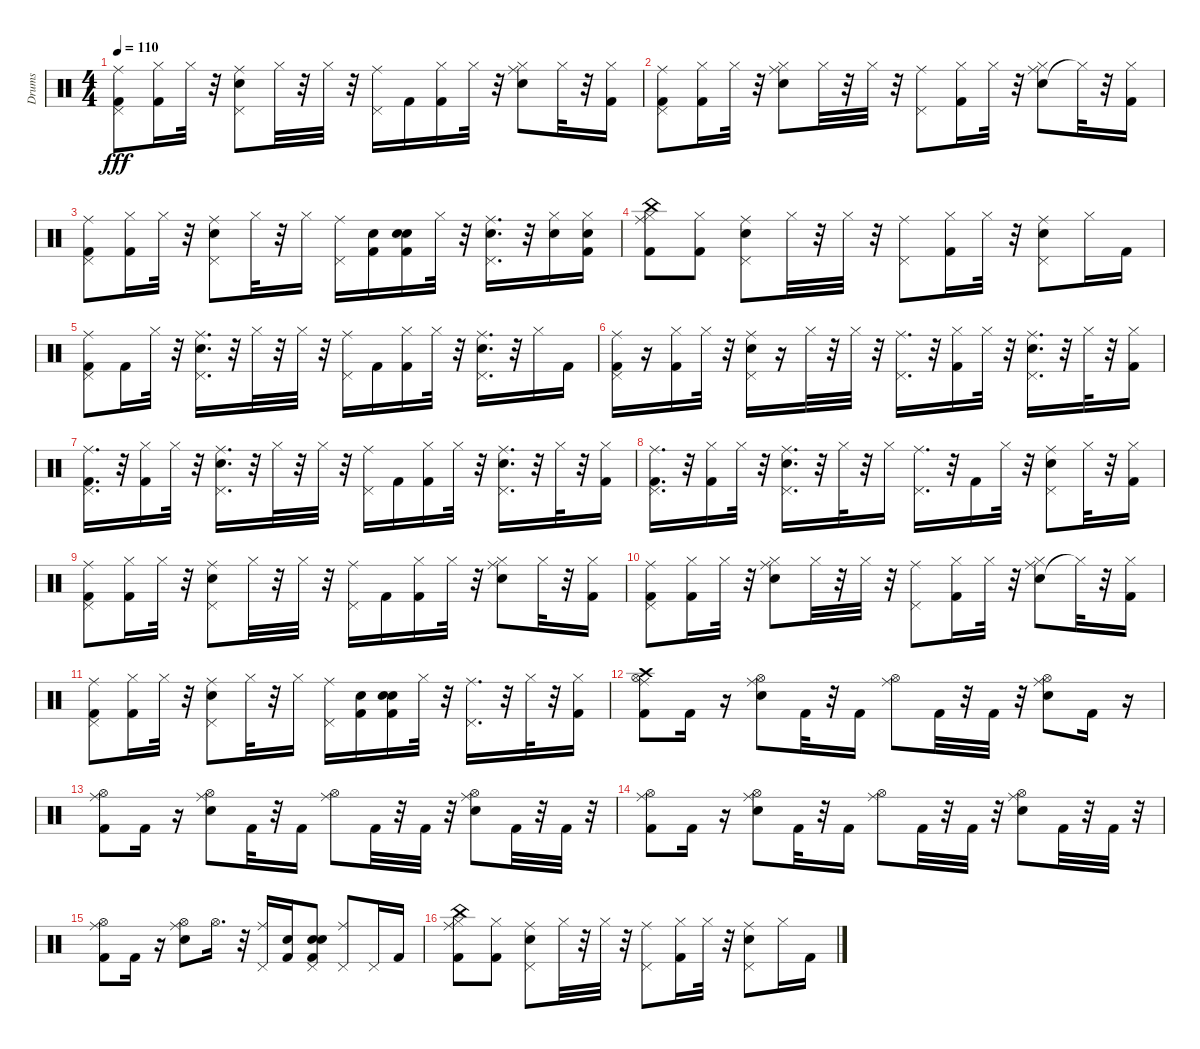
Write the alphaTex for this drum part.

\track ("Drums" "Drums") {instrument percussion}
\staff {score}
\articulation defaults
\ts (4 4)
\tempo 110
\clef neutral
\ks c
("Kick (hit) 2" "Pedal Hi-Hat (hit)" "Ride (middle)").8{dy fff} ("Kick (hit) 2" "Hi-Hat (closed)").16 "Hi-Hat (closed)".32 r.32 ("Snare (hit) 2" "Pedal Hi-Hat (hit)" "Ride (middle)").8 "Hi-Hat (closed)".32 r.32 "Hi-Hat (closed)".32 r.32 ("Pedal Hi-Hat (hit)" "Ride (middle)").16 "Kick (hit) 2".16 ("Kick (hit) 2" "Hi-Hat (closed)").16 "Hi-Hat (closed)".32 r.32 ("Snare (hit) 2" "Hi-Hat (closed)" "Ride (middle)").8 "Hi-Hat (closed)".32 r.32 ("Kick (hit) 2" "Hi-Hat (closed)").16 |
("Kick (hit) 2" "Pedal Hi-Hat (hit)" "Ride (middle)").8 ("Kick (hit) 2" "Hi-Hat (closed)").16 "Hi-Hat (closed)".32 r.32 ("Snare (hit) 2" "Hi-Hat (closed)" "Ride (middle)").8 "Hi-Hat (closed)".32 r.32 "Hi-Hat (closed)".32 r.32 ("Pedal Hi-Hat (hit)" "Ride (middle)").8 ("Kick (hit) 2" "Hi-Hat (closed)").16 "Hi-Hat (closed)".32 r.32 ("Snare (hit) 2" "Hi-Hat (closed)" "Ride (middle)").8 "Hi-Hat (closed)"{t}.32 r.32 ("Kick (hit) 2" "Hi-Hat (closed)").16 |
("Kick (hit) 2" "Pedal Hi-Hat (hit)" "Ride (middle)").8 ("Kick (hit) 2" "Hi-Hat (closed)").16 "Hi-Hat (closed)".32 r.32 ("Snare (hit) 2" "Pedal Hi-Hat (hit)" "Ride (middle)").8 "Hi-Hat (closed)".32 r.32 "Hi-Hat (closed)".16 ("Pedal Hi-Hat (hit)" "Ride (middle)").16 ("Kick (hit) 2" "Snare (hit) 2").16 ("Snare (hit) 2" "Kick (hit) 2" "Snare (hit) 2").16 "Hi-Hat (closed)".32 r.32 ("Snare (hit) 2" "Pedal Hi-Hat (hit)" "Ride (middle)").16{d} r.32 ("Hi-Hat (closed)" "Snare (hit) 2").16 ("Kick (hit) 2" "Hi-Hat (closed)" "Snare (hit) 2").16 |
("Kick (hit) 2" "Hi-Hat (closed)" "Ride (middle)" "China (hit)").8 ("Kick (hit) 2" "Hi-Hat (closed)").8 ("Snare (hit) 2" "Pedal Hi-Hat (hit)" "Ride (middle)").8 "Hi-Hat (closed)".32 r.32 "Hi-Hat (closed)".32 r.32 ("Pedal Hi-Hat (hit)" "Ride (middle)").8 ("Kick (hit) 2" "Hi-Hat (closed)").16 "Hi-Hat (closed)".32 r.32 ("Snare (hit) 2" "Pedal Hi-Hat (hit)" "Ride (middle)").8 "Hi-Hat (closed)".16 "Kick (hit) 2".16 |
("Kick (hit) 2" "Pedal Hi-Hat (hit)" "Ride (middle)").8 "Kick (hit) 2".16 "Hi-Hat (closed)".32 r.32 ("Snare (hit) 2" "Pedal Hi-Hat (hit)" "Ride (middle)").16{d} r.32 "Hi-Hat (closed)".32 r.32 "Hi-Hat (closed)".32 r.32 ("Pedal Hi-Hat (hit)" "Ride (middle)").16 "Kick (hit) 2".16 ("Kick (hit) 2" "Hi-Hat (closed)").16 "Hi-Hat (closed)".32 r.32 ("Snare (hit) 2" "Pedal Hi-Hat (hit)" "Ride (middle)").16{d} r.32 "Hi-Hat (closed)".16 "Kick (hit) 2".16 |
("Kick (hit) 2" "Pedal Hi-Hat (hit)" "Ride (middle)").16 r.16 ("Kick (hit) 2" "Hi-Hat (closed)").16 "Hi-Hat (closed)".32 r.32 ("Snare (hit) 2" "Pedal Hi-Hat (hit)" "Ride (middle)").16 r.16 "Hi-Hat (closed)".32 r.32 "Hi-Hat (closed)".32 r.32 ("Pedal Hi-Hat (hit)" "Ride (middle)").16{d} r.32 ("Kick (hit) 2" "Hi-Hat (closed)").16 "Hi-Hat (closed)".32 r.32 ("Snare (hit) 2" "Pedal Hi-Hat (hit)" "Ride (middle)").16{d} r.32 "Hi-Hat (closed)".32 r.32 ("Kick (hit) 2" "Hi-Hat (closed)").16 |
("Kick (hit) 2" "Pedal Hi-Hat (hit)" "Ride (middle)").16{d} r.32 ("Kick (hit) 2" "Hi-Hat (closed)").16 "Hi-Hat (closed)".32 r.32 ("Snare (hit) 2" "Pedal Hi-Hat (hit)" "Ride (middle)").16{d} r.32 "Hi-Hat (closed)".32 r.32 "Hi-Hat (closed)".32 r.32 ("Pedal Hi-Hat (hit)" "Ride (middle)").16 "Kick (hit) 2".16 ("Kick (hit) 2" "Hi-Hat (closed)").16 "Hi-Hat (closed)".32 r.32 ("Snare (hit) 2" "Pedal Hi-Hat (hit)" "Ride (middle)").16{d} r.32 "Hi-Hat (closed)".32 r.32 ("Kick (hit) 2" "Hi-Hat (closed)").16 |
("Kick (hit) 2" "Pedal Hi-Hat (hit)" "Ride (middle)").16{d} r.32 ("Kick (hit) 2" "Hi-Hat (closed)").16 "Hi-Hat (closed)".32 r.32 ("Snare (hit) 2" "Pedal Hi-Hat (hit)" "Ride (middle)").16{d} r.32 "Hi-Hat (closed)".32 r.32 "Hi-Hat (closed)".16 ("Pedal Hi-Hat (hit)" "Ride (middle)").16{d} r.32 "Kick (hit) 2".16 "Hi-Hat (closed)".32 r.32 ("Snare (hit) 2" "Pedal Hi-Hat (hit)" "Ride (middle)").8 "Hi-Hat (closed)".32 r.32 ("Kick (hit) 2" "Hi-Hat (closed)").16 |
("Kick (hit) 2" "Pedal Hi-Hat (hit)" "Ride (middle)").8 ("Kick (hit) 2" "Hi-Hat (closed)").16 "Hi-Hat (closed)".32 r.32 ("Snare (hit) 2" "Pedal Hi-Hat (hit)" "Ride (middle)").8 "Hi-Hat (closed)".32 r.32 "Hi-Hat (closed)".32 r.32 ("Pedal Hi-Hat (hit)" "Ride (middle)").16 "Kick (hit) 2".16 ("Kick (hit) 2" "Hi-Hat (closed)").16 "Hi-Hat (closed)".32 r.32 ("Snare (hit) 2" "Hi-Hat (closed)" "Ride (middle)").8 "Hi-Hat (closed)".32 r.32 ("Kick (hit) 2" "Hi-Hat (closed)").16 |
("Kick (hit) 2" "Pedal Hi-Hat (hit)" "Ride (middle)").8 ("Kick (hit) 2" "Hi-Hat (closed)").16 "Hi-Hat (closed)".32 r.32 ("Snare (hit) 2" "Hi-Hat (closed)" "Ride (middle)").8 "Hi-Hat (closed)".32 r.32 "Hi-Hat (closed)".32 r.32 ("Pedal Hi-Hat (hit)" "Ride (middle)").8 ("Kick (hit) 2" "Hi-Hat (closed)").16 "Hi-Hat (closed)".32 r.32 ("Snare (hit) 2" "Hi-Hat (closed)" "Ride (middle)").8 "Hi-Hat (closed)"{t}.32 r.32 ("Kick (hit) 2" "Hi-Hat (closed)").16 |
("Kick (hit) 2" "Pedal Hi-Hat (hit)" "Ride (middle)").8 ("Kick (hit) 2" "Hi-Hat (closed)").16 "Hi-Hat (closed)".32 r.32 ("Snare (hit) 2" "Pedal Hi-Hat (hit)" "Ride (middle)").8 "Hi-Hat (closed)".32 r.32 "Hi-Hat (closed)".16 ("Pedal Hi-Hat (hit)" "Ride (middle)").16 ("Kick (hit) 2" "Snare (hit) 2").16 ("Kick (hit) 2" "Snare (hit) 2" "Snare (hit) 2").16 "Hi-Hat (closed)".32 r.32 ("Pedal Hi-Hat (hit)" "Ride (middle)").16{d} r.32 "Hi-Hat (closed)".32 r.32 ("Kick (hit) 2" "Hi-Hat (closed)").16 |
("Kick (hit) 2" "Hi-Hat (open)" "Ride (middle)" "Crash high (hit)").8 "Kick (hit) 2".16 r.16 ("Snare (hit) 2" "Hi-Hat (open)" "Ride (middle)").8 "Kick (hit) 2".32 r.32 "Kick (hit) 2".16 ("Hi-Hat (open)" "Ride (middle)").8 "Kick (hit) 2".32 r.32 "Kick (hit) 2".32 r.32 ("Snare (hit) 2" "Hi-Hat (open)" "Ride (middle)").8 "Kick (hit) 2".16 r.16 |
("Kick (hit) 2" "Hi-Hat (open)" "Ride (middle)").8 "Kick (hit) 2".16 r.16 ("Snare (hit) 2" "Hi-Hat (open)" "Ride (middle)").8 "Kick (hit) 2".32 r.32 "Kick (hit) 2".16 ("Hi-Hat (open)" "Ride (middle)").8 "Kick (hit) 2".32 r.32 "Kick (hit) 2".32 r.32 ("Snare (hit) 2" "Hi-Hat (open)" "Ride (middle)").8 "Kick (hit) 2".32 r.32 "Kick (hit) 2".32 r.32 |
("Kick (hit) 2" "Hi-Hat (open)" "Ride (middle)").8 "Kick (hit) 2".16 r.16 ("Snare (hit) 2" "Hi-Hat (open)" "Ride (middle)").8 "Kick (hit) 2".32 r.32 "Kick (hit) 2".16 ("Hi-Hat (open)" "Ride (middle)").8 "Kick (hit) 2".32 r.32 "Kick (hit) 2".32 r.32 ("Snare (hit) 2" "Hi-Hat (open)" "Ride (middle)").8 "Kick (hit) 2".32 r.32 "Kick (hit) 2".32 r.32 |
("Kick (hit) 2" "Hi-Hat (open)" "Ride (middle)").8 "Kick (hit) 2".16 r.16 ("Snare (hit) 2" "Hi-Hat (open)" "Ride (middle)").8 "Hi-Hat (open)".16{d} r.32 ("Pedal Hi-Hat (hit)" "Ride (middle)").16 ("Kick (hit) 2" "Snare (hit) 2").16 ("Snare (hit) 2" "Kick (hit) 2" "Pedal Hi-Hat (hit)" "Snare (hit) 2").8 ("Pedal Hi-Hat (hit)" "Ride (middle)").8 "Pedal Hi-Hat (hit)".16 "Kick (hit) 2".16 |
("Kick (hit) 2" "Hi-Hat (closed)" "Ride (middle)" "China (hit)").8 ("Kick (hit) 2" "Hi-Hat (closed)").8 ("Snare (hit) 2" "Pedal Hi-Hat (hit)" "Ride (middle)").8 "Hi-Hat (closed)".32 r.32 "Hi-Hat (closed)".32 r.32 ("Pedal Hi-Hat (hit)" "Ride (middle)").8 ("Kick (hit) 2" "Hi-Hat (closed)").16 "Hi-Hat (closed)".32 r.32 ("Snare (hit) 2" "Pedal Hi-Hat (hit)" "Ride (middle)").8 "Hi-Hat (closed)".16 "Kick (hit) 2".16
